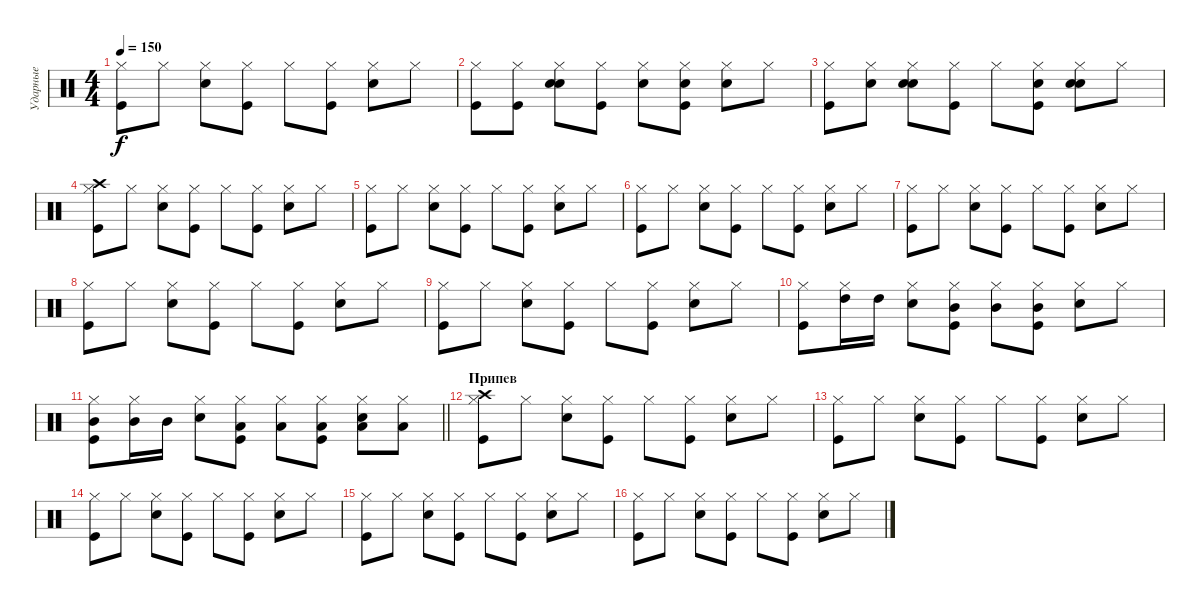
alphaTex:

\track ("Ударные" "Ударные") {instrument percussion}
\staff {score}
\articulation defaults
\ts (4 4)
\tempo 150
\clef neutral
\ks c
("Kick (hit)" "Hi-Hat (closed)").8{dy f} "Hi-Hat (closed)".8 ("Snare (hit) 2" "Hi-Hat (closed)").8 ("Kick (hit)" "Hi-Hat (closed)").8 "Hi-Hat (closed)".8 ("Kick (hit)" "Hi-Hat (closed)").8 ("Snare (hit) 2" "Hi-Hat (closed)").8 "Hi-Hat (closed)".8 |
("Kick (hit)" "Hi-Hat (closed)").8 ("Kick (hit)" "Hi-Hat (closed)").8 ("Snare (hit) 2" "Hi-Hat (closed)" "Hand Clap (hit)").8 ("Kick (hit)" "Hi-Hat (closed)").8 ("Hi-Hat (closed)" "Hand Clap (hit)").8 ("Kick (hit)" "Hi-Hat (closed)" "Hand Clap (hit)").8 ("Snare (hit) 2" "Hi-Hat (closed)").8 "Hi-Hat (closed)".8 |
("Kick (hit)" "Hi-Hat (closed)").8 ("Hi-Hat (closed)" "Hand Clap (hit)").8 ("Snare (hit) 2" "Hi-Hat (closed)" "Hand Clap (hit)").8 ("Kick (hit)" "Hi-Hat (closed)").8 "Hi-Hat (closed)".8 ("Kick (hit)" "Hi-Hat (closed)" "Hand Clap (hit)").8 ("Snare (hit) 2" "Hi-Hat (closed)" "Hand Clap (hit)").8 "Hi-Hat (closed)".8 |
("Kick (hit)" "Hi-Hat (closed)" "Crash high (hit)").8 "Hi-Hat (closed)".8 ("Snare (hit) 2" "Hi-Hat (closed)").8 ("Kick (hit)" "Hi-Hat (closed)").8 "Hi-Hat (closed)".8 ("Kick (hit)" "Hi-Hat (closed)").8 ("Snare (hit) 2" "Hi-Hat (closed)").8 "Hi-Hat (closed)".8 |
("Kick (hit)" "Hi-Hat (closed)").8 "Hi-Hat (closed)".8 ("Snare (hit) 2" "Hi-Hat (closed)").8 ("Kick (hit)" "Hi-Hat (closed)").8 "Hi-Hat (closed)".8 ("Kick (hit)" "Hi-Hat (closed)").8 ("Snare (hit) 2" "Hi-Hat (closed)").8 "Hi-Hat (closed)".8 |
("Kick (hit)" "Hi-Hat (closed)").8 "Hi-Hat (closed)".8 ("Snare (hit) 2" "Hi-Hat (closed)").8 ("Kick (hit)" "Hi-Hat (closed)").8 "Hi-Hat (closed)".8 ("Kick (hit)" "Hi-Hat (closed)").8 ("Snare (hit) 2" "Hi-Hat (closed)").8 "Hi-Hat (closed)".8 |
("Kick (hit)" "Hi-Hat (closed)").8 "Hi-Hat (closed)".8 ("Snare (hit) 2" "Hi-Hat (closed)").8 ("Kick (hit)" "Hi-Hat (closed)").8 "Hi-Hat (closed)".8 ("Kick (hit)" "Hi-Hat (closed)").8 ("Snare (hit) 2" "Hi-Hat (closed)").8 "Hi-Hat (closed)".8 |
("Kick (hit)" "Hi-Hat (closed)").8 "Hi-Hat (closed)".8 ("Snare (hit) 2" "Hi-Hat (closed)").8 ("Kick (hit)" "Hi-Hat (closed)").8 "Hi-Hat (closed)".8 ("Kick (hit)" "Hi-Hat (closed)").8 ("Snare (hit) 2" "Hi-Hat (closed)").8 "Hi-Hat (closed)".8 |
("Kick (hit)" "Hi-Hat (closed)").8 "Hi-Hat (closed)".8 ("Snare (hit) 2" "Hi-Hat (closed)").8 ("Kick (hit)" "Hi-Hat (closed)").8 "Hi-Hat (closed)".8 ("Kick (hit)" "Hi-Hat (closed)").8 ("Snare (hit) 2" "Hi-Hat (closed)").8 "Hi-Hat (closed)".8 |
("Kick (hit)" "Hi-Hat (closed)").8 ("Hi-Hat (closed)" "High Tom (hit)").16 "High Tom (hit)".16 ("Snare (hit) 2" "Hi-Hat (closed)").8 ("Kick (hit)" "Hi-Hat (closed)" "Mid Tom (hit)").8 ("Hi-Hat (closed)" "Mid Tom (hit)").8 ("Kick (hit)" "Hi-Hat (closed)" "Mid Tom (hit)").8 ("Snare (hit) 2" "Hi-Hat (closed)").8 "Hi-Hat (closed)".8 |
\barLineRight lightlight
("Kick (hit)" "Hi-Hat (closed)" "Mid Tom (hit)").8 ("Hi-Hat (closed)" "Mid Tom (hit)").16 "Mid Tom (hit)".16 ("Snare (hit) 2" "Hi-Hat (closed)").8 ("Kick (hit)" "Hi-Hat (closed)" "Low Tom (hit)").8 ("Hi-Hat (closed)" "Low Tom (hit)").8 ("Kick (hit)" "Hi-Hat (closed)" "Low Tom (hit)").8 ("Snare (hit) 2" "Hi-Hat (closed)" "Low Tom (hit)").8 ("Hi-Hat (closed)" "Low Tom (hit)").8 |
\section ("" "Припев")
("Kick (hit)" "Hi-Hat (closed)" "Crash high (hit)").8 "Hi-Hat (closed)".8 ("Snare (hit) 2" "Hi-Hat (closed)").8 ("Kick (hit)" "Hi-Hat (closed)").8 "Hi-Hat (closed)".8 ("Kick (hit)" "Hi-Hat (closed)").8 ("Snare (hit) 2" "Hi-Hat (closed)").8 "Hi-Hat (closed)".8 |
("Kick (hit)" "Hi-Hat (closed)").8 "Hi-Hat (closed)".8 ("Snare (hit) 2" "Hi-Hat (closed)").8 ("Kick (hit)" "Hi-Hat (closed)").8 "Hi-Hat (closed)".8 ("Kick (hit)" "Hi-Hat (closed)").8 ("Snare (hit) 2" "Hi-Hat (closed)").8 "Hi-Hat (closed)".8 |
("Kick (hit)" "Hi-Hat (closed)").8 "Hi-Hat (closed)".8 ("Snare (hit) 2" "Hi-Hat (closed)").8 ("Kick (hit)" "Hi-Hat (closed)").8 "Hi-Hat (closed)".8 ("Kick (hit)" "Hi-Hat (closed)").8 ("Snare (hit) 2" "Hi-Hat (closed)").8 "Hi-Hat (closed)".8 |
("Kick (hit)" "Hi-Hat (closed)").8 "Hi-Hat (closed)".8 ("Snare (hit) 2" "Hi-Hat (closed)").8 ("Kick (hit)" "Hi-Hat (closed)").8 "Hi-Hat (closed)".8 ("Kick (hit)" "Hi-Hat (closed)").8 ("Snare (hit) 2" "Hi-Hat (closed)").8 "Hi-Hat (closed)".8 |
("Kick (hit)" "Hi-Hat (closed)").8 "Hi-Hat (closed)".8 ("Snare (hit) 2" "Hi-Hat (closed)").8 ("Kick (hit)" "Hi-Hat (closed)").8 "Hi-Hat (closed)".8 ("Kick (hit)" "Hi-Hat (closed)").8 ("Snare (hit) 2" "Hi-Hat (closed)").8 "Hi-Hat (closed)".8
